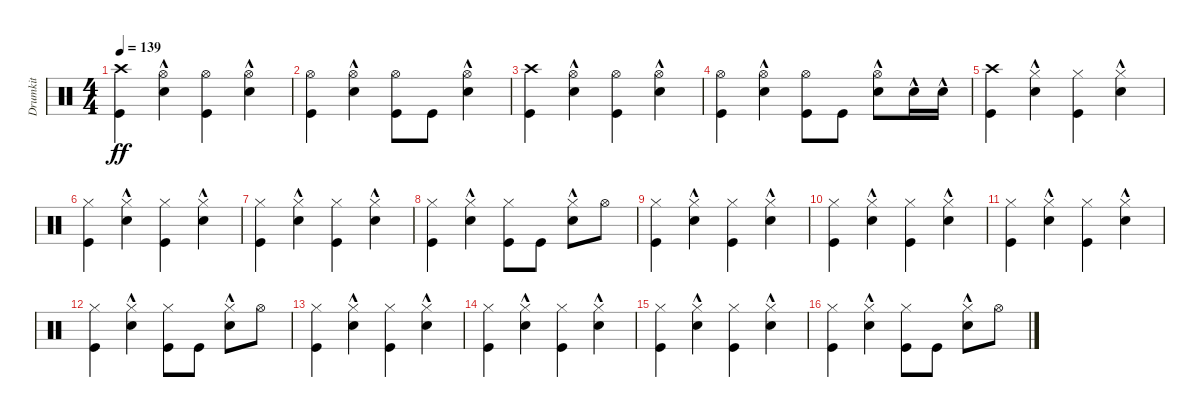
\track ("Drumkit" "Drumkit") {instrument percussion}
\staff {score}
\articulation defaults
\ts (4 4)
\tempo 139
\clef neutral
\ks c
("Kick (hit)" "Crash high (hit)").4{dy ff} ("Snare (hit) 2"{hac} "Hi-Hat (open)").4 ("Kick (hit)" "Hi-Hat (open)").4 ("Snare (hit) 2"{hac} "Hi-Hat (open)").4 |
("Hi-Hat (open)" "Kick (hit)").4 ("Hi-Hat (open)" "Snare (hit) 2"{hac}).4 ("Hi-Hat (open)" "Kick (hit)").8 "Kick (hit)".8 ("Hi-Hat (open)" "Snare (hit) 2"{hac}).4 |
("Kick (hit)" "Crash high (hit)").4 ("Hi-Hat (open)" "Snare (hit) 2"{hac}).4 ("Hi-Hat (open)" "Kick (hit)").4 ("Hi-Hat (open)" "Snare (hit) 2"{hac}).4 |
("Hi-Hat (open)" "Kick (hit)").4 ("Snare (hit) 2"{hac} "Hi-Hat (open)").4 ("Hi-Hat (open)" "Kick (hit)").8 "Kick (hit)".8 ("Snare (hit) 2"{hac} "Hi-Hat (open)").8 "Snare (hit) 2"{hac}.16 "Snare (hit) 2"{hac}.16 |
("Kick (hit)" "Crash high (hit)").4 ("Snare (hit) 2"{hac} "Hi-Hat (closed)").4 ("Kick (hit)" "Hi-Hat (closed)").4 ("Snare (hit) 2"{hac} "Hi-Hat (closed)").4 |
("Hi-Hat (closed)" "Kick (hit)").4 ("Hi-Hat (closed)" "Snare (hit) 2"{hac}).4 ("Hi-Hat (closed)" "Kick (hit)").4 ("Hi-Hat (closed)" "Snare (hit) 2"{hac}).4 |
("Hi-Hat (closed)" "Kick (hit)").4 ("Hi-Hat (closed)" "Snare (hit) 2"{hac}).4 ("Hi-Hat (closed)" "Kick (hit)").4 ("Hi-Hat (closed)" "Snare (hit) 2"{hac}).4 |
("Hi-Hat (closed)" "Kick (hit)").4 ("Snare (hit) 2"{hac} "Hi-Hat (closed)").4 ("Hi-Hat (closed)" "Kick (hit)").8 "Kick (hit)".8 ("Snare (hit) 2"{hac} "Hi-Hat (closed)").8 "Hi-Hat (open)".8 |
("Kick (hit)" "Hi-Hat (closed)").4 ("Snare (hit) 2"{hac} "Hi-Hat (closed)").4 ("Kick (hit)" "Hi-Hat (closed)").4 ("Snare (hit) 2"{hac} "Hi-Hat (closed)").4 |
("Hi-Hat (closed)" "Kick (hit)").4 ("Hi-Hat (closed)" "Snare (hit) 2"{hac}).4 ("Hi-Hat (closed)" "Kick (hit)").4 ("Hi-Hat (closed)" "Snare (hit) 2"{hac}).4 |
("Hi-Hat (closed)" "Kick (hit)").4 ("Hi-Hat (closed)" "Snare (hit) 2"{hac}).4 ("Hi-Hat (closed)" "Kick (hit)").4 ("Hi-Hat (closed)" "Snare (hit) 2"{hac}).4 |
("Hi-Hat (closed)" "Kick (hit)").4 ("Snare (hit) 2"{hac} "Hi-Hat (closed)").4 ("Hi-Hat (closed)" "Kick (hit)").8 "Kick (hit)".8 ("Snare (hit) 2"{hac} "Hi-Hat (closed)").8 "Hi-Hat (open)".8 |
("Kick (hit)" "Hi-Hat (closed)").4 ("Snare (hit) 2"{hac} "Hi-Hat (closed)").4 ("Kick (hit)" "Hi-Hat (closed)").4 ("Snare (hit) 2"{hac} "Hi-Hat (closed)").4 |
("Hi-Hat (closed)" "Kick (hit)").4 ("Hi-Hat (closed)" "Snare (hit) 2"{hac}).4 ("Hi-Hat (closed)" "Kick (hit)").4 ("Hi-Hat (closed)" "Snare (hit) 2"{hac}).4 |
("Hi-Hat (closed)" "Kick (hit)").4 ("Hi-Hat (closed)" "Snare (hit) 2"{hac}).4 ("Hi-Hat (closed)" "Kick (hit)").4 ("Hi-Hat (closed)" "Snare (hit) 2"{hac}).4 |
("Hi-Hat (closed)" "Kick (hit)").4 ("Snare (hit) 2"{hac} "Hi-Hat (closed)").4 ("Hi-Hat (closed)" "Kick (hit)").8 "Kick (hit)".8 ("Snare (hit) 2"{hac} "Hi-Hat (closed)").8 "Hi-Hat (open)".8
